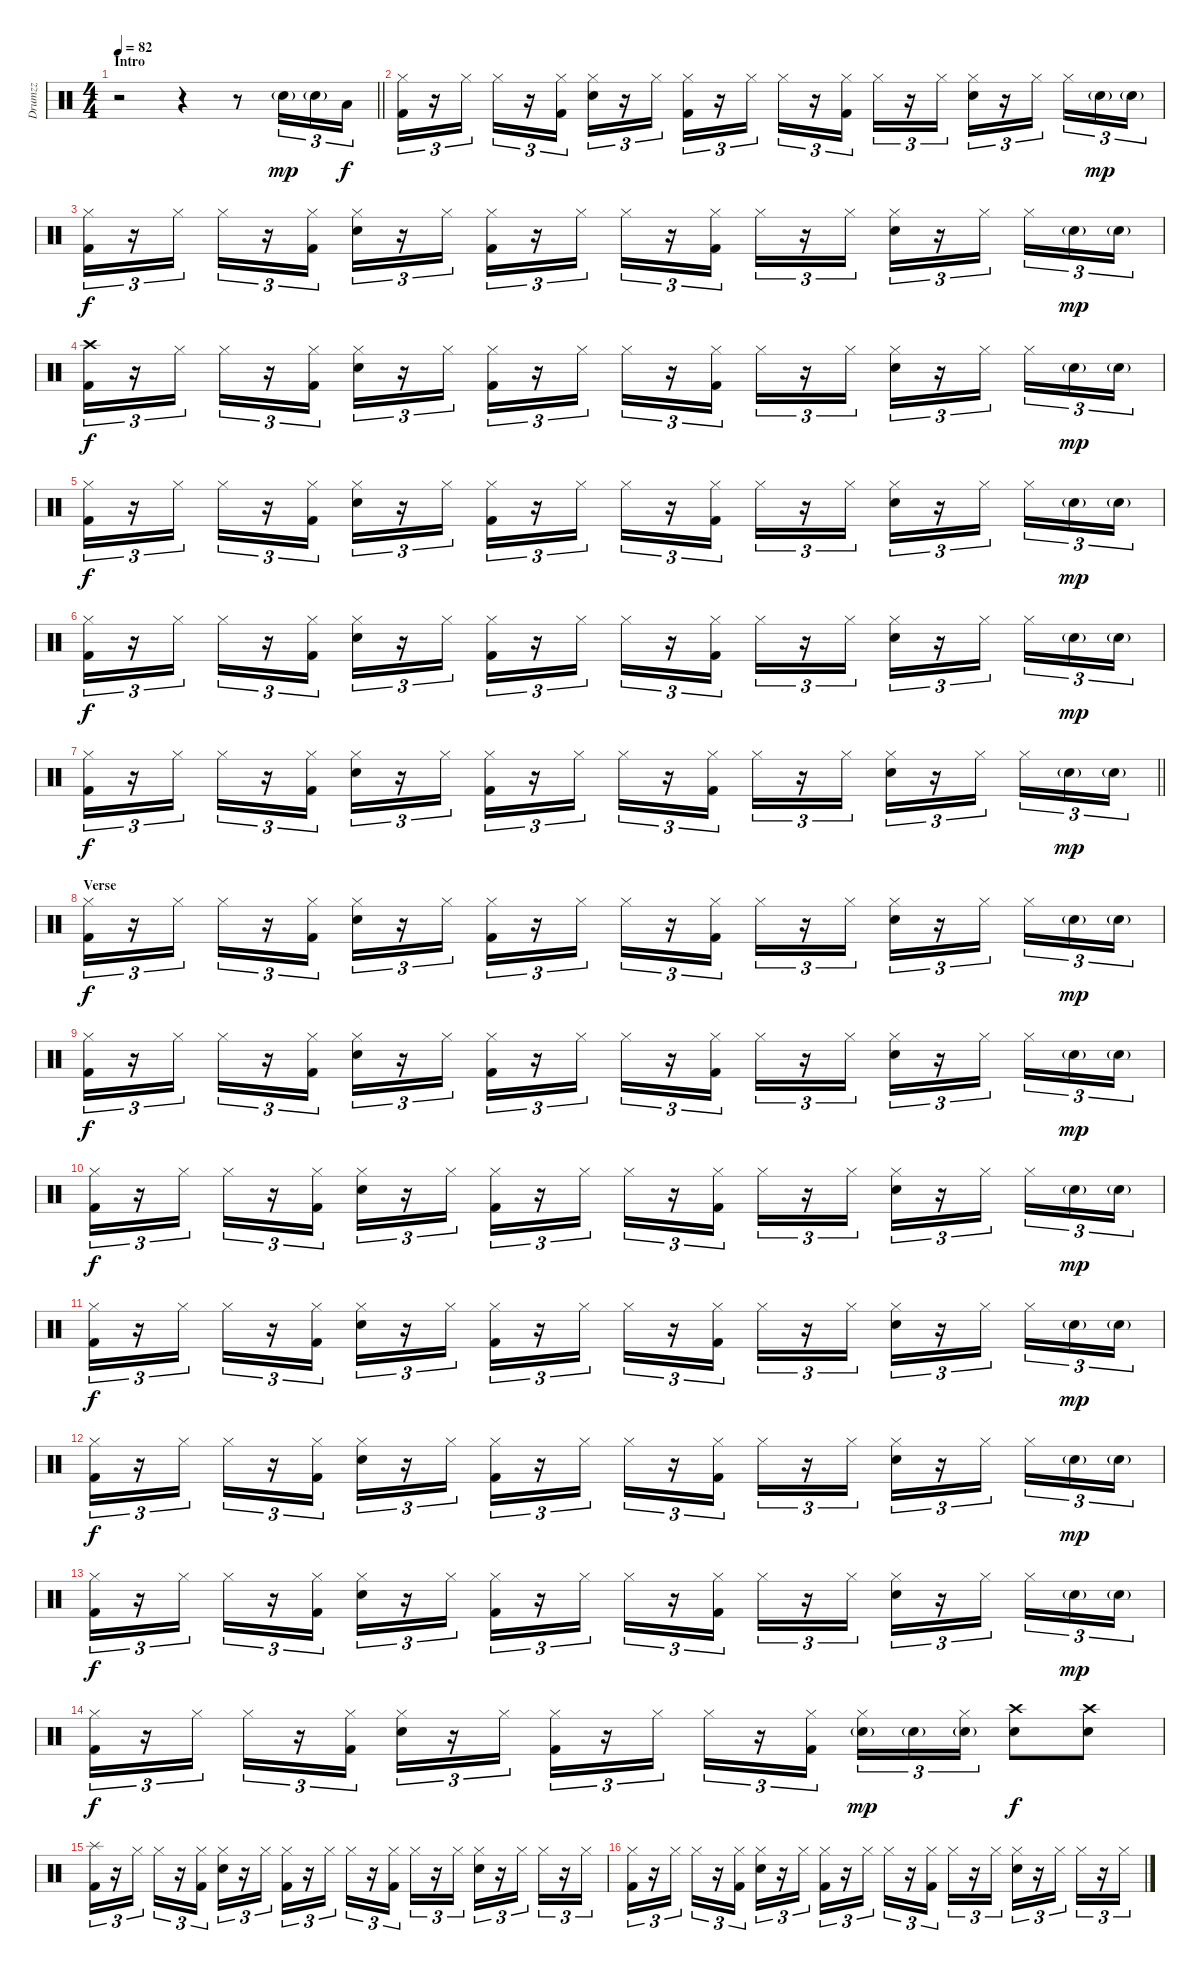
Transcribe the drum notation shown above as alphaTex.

\track ("Drumzz" "Drumzz") {instrument percussion}
\staff {score}
\articulation defaults
\ts (4 4)
\section ("" "Intro")
\tempo 82
\clef neutral
\barLineRight lightlight
\ks c
r.2{dy mp} r.4 r.8 "Snare (hit) 2"{g}.16{tu (3 2)} "Snare (hit) 2"{g}.16{tu (3 2)} "Low Tom (hit)".16{tu (3 2) dy f} |
("Hi-Hat (closed)" "Kick (hit) 2").16{tu (3 2)} r.16{tu (3 2)} "Hi-Hat (closed)".16{tu (3 2)} "Hi-Hat (closed)".16{tu (3 2)} r.16{tu (3 2)} ("Hi-Hat (closed)" "Kick (hit) 2").16{tu (3 2)} ("Hi-Hat (closed)" "Snare (hit) 2").16{tu (3 2)} r.16{tu (3 2)} "Hi-Hat (closed)".16{tu (3 2)} ("Hi-Hat (closed)" "Kick (hit) 2").16{tu (3 2)} r.16{tu (3 2)} "Hi-Hat (closed)".16{tu (3 2)} "Hi-Hat (closed)".16{tu (3 2)} r.16{tu (3 2)} ("Hi-Hat (closed)" "Kick (hit) 2").16{tu (3 2)} "Hi-Hat (closed)".16{tu (3 2)} r.16{tu (3 2)} "Hi-Hat (closed)".16{tu (3 2)} ("Hi-Hat (closed)" "Snare (hit) 2").16{tu (3 2)} r.16{tu (3 2)} "Hi-Hat (closed)".16{tu (3 2) beam splitsecondary} "Hi-Hat (closed)".16{tu (3 2)} "Snare (hit) 2"{g}.16{tu (3 2) dy mp} "Snare (hit) 2"{g}.16{tu (3 2)} |
("Hi-Hat (closed)" "Kick (hit) 2").16{tu (3 2) dy f} r.16{tu (3 2)} "Hi-Hat (closed)".16{tu (3 2)} "Hi-Hat (closed)".16{tu (3 2)} r.16{tu (3 2)} ("Hi-Hat (closed)" "Kick (hit) 2").16{tu (3 2)} ("Hi-Hat (closed)" "Snare (hit) 2").16{tu (3 2)} r.16{tu (3 2)} "Hi-Hat (closed)".16{tu (3 2)} ("Hi-Hat (closed)" "Kick (hit) 2").16{tu (3 2)} r.16{tu (3 2)} "Hi-Hat (closed)".16{tu (3 2)} "Hi-Hat (closed)".16{tu (3 2)} r.16{tu (3 2)} ("Hi-Hat (closed)" "Kick (hit) 2").16{tu (3 2)} "Hi-Hat (closed)".16{tu (3 2)} r.16{tu (3 2)} "Hi-Hat (closed)".16{tu (3 2)} ("Hi-Hat (closed)" "Snare (hit) 2").16{tu (3 2)} r.16{tu (3 2)} "Hi-Hat (closed)".16{tu (3 2) beam splitsecondary} "Hi-Hat (closed)".16{tu (3 2)} "Snare (hit) 2"{g}.16{tu (3 2) dy mp} "Snare (hit) 2"{g}.16{tu (3 2)} |
("Crash high (hit)" "Kick (hit) 2").16{tu (3 2) dy f} r.16{tu (3 2)} "Hi-Hat (closed)".16{tu (3 2)} "Hi-Hat (closed)".16{tu (3 2)} r.16{tu (3 2)} ("Hi-Hat (closed)" "Kick (hit) 2").16{tu (3 2)} ("Hi-Hat (closed)" "Snare (hit) 2").16{tu (3 2)} r.16{tu (3 2)} "Hi-Hat (closed)".16{tu (3 2)} ("Hi-Hat (closed)" "Kick (hit) 2").16{tu (3 2)} r.16{tu (3 2)} "Hi-Hat (closed)".16{tu (3 2)} "Hi-Hat (closed)".16{tu (3 2)} r.16{tu (3 2)} ("Hi-Hat (closed)" "Kick (hit) 2").16{tu (3 2)} "Hi-Hat (closed)".16{tu (3 2)} r.16{tu (3 2)} "Hi-Hat (closed)".16{tu (3 2)} ("Hi-Hat (closed)" "Snare (hit) 2").16{tu (3 2)} r.16{tu (3 2)} "Hi-Hat (closed)".16{tu (3 2) beam splitsecondary} "Hi-Hat (closed)".16{tu (3 2)} "Snare (hit) 2"{g}.16{tu (3 2) dy mp} "Snare (hit) 2"{g}.16{tu (3 2)} |
("Hi-Hat (closed)" "Kick (hit) 2").16{tu (3 2) dy f} r.16{tu (3 2)} "Hi-Hat (closed)".16{tu (3 2)} "Hi-Hat (closed)".16{tu (3 2)} r.16{tu (3 2)} ("Hi-Hat (closed)" "Kick (hit) 2").16{tu (3 2)} ("Hi-Hat (closed)" "Snare (hit) 2").16{tu (3 2)} r.16{tu (3 2)} "Hi-Hat (closed)".16{tu (3 2)} ("Hi-Hat (closed)" "Kick (hit) 2").16{tu (3 2)} r.16{tu (3 2)} "Hi-Hat (closed)".16{tu (3 2)} "Hi-Hat (closed)".16{tu (3 2)} r.16{tu (3 2)} ("Hi-Hat (closed)" "Kick (hit) 2").16{tu (3 2)} "Hi-Hat (closed)".16{tu (3 2)} r.16{tu (3 2)} "Hi-Hat (closed)".16{tu (3 2)} ("Hi-Hat (closed)" "Snare (hit) 2").16{tu (3 2)} r.16{tu (3 2)} "Hi-Hat (closed)".16{tu (3 2) beam splitsecondary} "Hi-Hat (closed)".16{tu (3 2)} "Snare (hit) 2"{g}.16{tu (3 2) dy mp} "Snare (hit) 2"{g}.16{tu (3 2)} |
("Hi-Hat (closed)" "Kick (hit) 2").16{tu (3 2) dy f} r.16{tu (3 2)} "Hi-Hat (closed)".16{tu (3 2)} "Hi-Hat (closed)".16{tu (3 2)} r.16{tu (3 2)} ("Hi-Hat (closed)" "Kick (hit) 2").16{tu (3 2)} ("Hi-Hat (closed)" "Snare (hit) 2").16{tu (3 2)} r.16{tu (3 2)} "Hi-Hat (closed)".16{tu (3 2)} ("Hi-Hat (closed)" "Kick (hit) 2").16{tu (3 2)} r.16{tu (3 2)} "Hi-Hat (closed)".16{tu (3 2)} "Hi-Hat (closed)".16{tu (3 2)} r.16{tu (3 2)} ("Hi-Hat (closed)" "Kick (hit) 2").16{tu (3 2)} "Hi-Hat (closed)".16{tu (3 2)} r.16{tu (3 2)} "Hi-Hat (closed)".16{tu (3 2)} ("Hi-Hat (closed)" "Snare (hit) 2").16{tu (3 2)} r.16{tu (3 2)} "Hi-Hat (closed)".16{tu (3 2) beam splitsecondary} "Hi-Hat (closed)".16{tu (3 2)} "Snare (hit) 2"{g}.16{tu (3 2) dy mp} "Snare (hit) 2"{g}.16{tu (3 2)} |
\barLineRight lightlight
("Hi-Hat (closed)" "Kick (hit) 2").16{tu (3 2) dy f} r.16{tu (3 2)} "Hi-Hat (closed)".16{tu (3 2)} "Hi-Hat (closed)".16{tu (3 2)} r.16{tu (3 2)} ("Hi-Hat (closed)" "Kick (hit) 2").16{tu (3 2)} ("Hi-Hat (closed)" "Snare (hit) 2").16{tu (3 2)} r.16{tu (3 2)} "Hi-Hat (closed)".16{tu (3 2)} ("Hi-Hat (closed)" "Kick (hit) 2").16{tu (3 2)} r.16{tu (3 2)} "Hi-Hat (closed)".16{tu (3 2)} "Hi-Hat (closed)".16{tu (3 2)} r.16{tu (3 2)} ("Hi-Hat (closed)" "Kick (hit) 2").16{tu (3 2)} "Hi-Hat (closed)".16{tu (3 2)} r.16{tu (3 2)} "Hi-Hat (closed)".16{tu (3 2)} ("Hi-Hat (closed)" "Snare (hit) 2").16{tu (3 2)} r.16{tu (3 2)} "Hi-Hat (closed)".16{tu (3 2) beam splitsecondary} "Hi-Hat (closed)".16{tu (3 2)} "Snare (hit) 2"{g}.16{tu (3 2) dy mp} "Snare (hit) 2"{g}.16{tu (3 2)} |
\section ("" "Verse")
("Hi-Hat (closed)" "Kick (hit) 2").16{tu (3 2) dy f} r.16{tu (3 2)} "Hi-Hat (closed)".16{tu (3 2)} "Hi-Hat (closed)".16{tu (3 2)} r.16{tu (3 2)} ("Hi-Hat (closed)" "Kick (hit) 2").16{tu (3 2)} ("Hi-Hat (closed)" "Snare (hit) 2").16{tu (3 2)} r.16{tu (3 2)} "Hi-Hat (closed)".16{tu (3 2)} ("Hi-Hat (closed)" "Kick (hit) 2").16{tu (3 2)} r.16{tu (3 2)} "Hi-Hat (closed)".16{tu (3 2)} "Hi-Hat (closed)".16{tu (3 2)} r.16{tu (3 2)} ("Hi-Hat (closed)" "Kick (hit) 2").16{tu (3 2)} "Hi-Hat (closed)".16{tu (3 2)} r.16{tu (3 2)} "Hi-Hat (closed)".16{tu (3 2)} ("Hi-Hat (closed)" "Snare (hit) 2").16{tu (3 2)} r.16{tu (3 2)} "Hi-Hat (closed)".16{tu (3 2) beam splitsecondary} "Hi-Hat (closed)".16{tu (3 2)} "Snare (hit) 2"{g}.16{tu (3 2) dy mp} "Snare (hit) 2"{g}.16{tu (3 2)} |
("Hi-Hat (closed)" "Kick (hit) 2").16{tu (3 2) dy f} r.16{tu (3 2)} "Hi-Hat (closed)".16{tu (3 2)} "Hi-Hat (closed)".16{tu (3 2)} r.16{tu (3 2)} ("Hi-Hat (closed)" "Kick (hit) 2").16{tu (3 2)} ("Hi-Hat (closed)" "Snare (hit) 2").16{tu (3 2)} r.16{tu (3 2)} "Hi-Hat (closed)".16{tu (3 2)} ("Hi-Hat (closed)" "Kick (hit) 2").16{tu (3 2)} r.16{tu (3 2)} "Hi-Hat (closed)".16{tu (3 2)} "Hi-Hat (closed)".16{tu (3 2)} r.16{tu (3 2)} ("Hi-Hat (closed)" "Kick (hit) 2").16{tu (3 2)} "Hi-Hat (closed)".16{tu (3 2)} r.16{tu (3 2)} "Hi-Hat (closed)".16{tu (3 2)} ("Hi-Hat (closed)" "Snare (hit) 2").16{tu (3 2)} r.16{tu (3 2)} "Hi-Hat (closed)".16{tu (3 2) beam splitsecondary} "Hi-Hat (closed)".16{tu (3 2)} "Snare (hit) 2"{g}.16{tu (3 2) dy mp} "Snare (hit) 2"{g}.16{tu (3 2)} |
("Hi-Hat (closed)" "Kick (hit) 2").16{tu (3 2) dy f} r.16{tu (3 2)} "Hi-Hat (closed)".16{tu (3 2)} "Hi-Hat (closed)".16{tu (3 2)} r.16{tu (3 2)} ("Hi-Hat (closed)" "Kick (hit) 2").16{tu (3 2)} ("Hi-Hat (closed)" "Snare (hit) 2").16{tu (3 2)} r.16{tu (3 2)} "Hi-Hat (closed)".16{tu (3 2)} ("Hi-Hat (closed)" "Kick (hit) 2").16{tu (3 2)} r.16{tu (3 2)} "Hi-Hat (closed)".16{tu (3 2)} "Hi-Hat (closed)".16{tu (3 2)} r.16{tu (3 2)} ("Hi-Hat (closed)" "Kick (hit) 2").16{tu (3 2)} "Hi-Hat (closed)".16{tu (3 2)} r.16{tu (3 2)} "Hi-Hat (closed)".16{tu (3 2)} ("Hi-Hat (closed)" "Snare (hit) 2").16{tu (3 2)} r.16{tu (3 2)} "Hi-Hat (closed)".16{tu (3 2) beam splitsecondary} "Hi-Hat (closed)".16{tu (3 2)} "Snare (hit) 2"{g}.16{tu (3 2) dy mp} "Snare (hit) 2"{g}.16{tu (3 2)} |
("Hi-Hat (closed)" "Kick (hit) 2").16{tu (3 2) dy f} r.16{tu (3 2)} "Hi-Hat (closed)".16{tu (3 2)} "Hi-Hat (closed)".16{tu (3 2)} r.16{tu (3 2)} ("Hi-Hat (closed)" "Kick (hit) 2").16{tu (3 2)} ("Hi-Hat (closed)" "Snare (hit) 2").16{tu (3 2)} r.16{tu (3 2)} "Hi-Hat (closed)".16{tu (3 2)} ("Hi-Hat (closed)" "Kick (hit) 2").16{tu (3 2)} r.16{tu (3 2)} "Hi-Hat (closed)".16{tu (3 2)} "Hi-Hat (closed)".16{tu (3 2)} r.16{tu (3 2)} ("Hi-Hat (closed)" "Kick (hit) 2").16{tu (3 2)} "Hi-Hat (closed)".16{tu (3 2)} r.16{tu (3 2)} "Hi-Hat (closed)".16{tu (3 2)} ("Hi-Hat (closed)" "Snare (hit) 2").16{tu (3 2)} r.16{tu (3 2)} "Hi-Hat (closed)".16{tu (3 2) beam splitsecondary} "Hi-Hat (closed)".16{tu (3 2)} "Snare (hit) 2"{g}.16{tu (3 2) dy mp} "Snare (hit) 2"{g}.16{tu (3 2)} |
("Hi-Hat (closed)" "Kick (hit) 2").16{tu (3 2) dy f} r.16{tu (3 2)} "Hi-Hat (closed)".16{tu (3 2)} "Hi-Hat (closed)".16{tu (3 2)} r.16{tu (3 2)} ("Hi-Hat (closed)" "Kick (hit) 2").16{tu (3 2)} ("Hi-Hat (closed)" "Snare (hit) 2").16{tu (3 2)} r.16{tu (3 2)} "Hi-Hat (closed)".16{tu (3 2)} ("Hi-Hat (closed)" "Kick (hit) 2").16{tu (3 2)} r.16{tu (3 2)} "Hi-Hat (closed)".16{tu (3 2)} "Hi-Hat (closed)".16{tu (3 2)} r.16{tu (3 2)} ("Hi-Hat (closed)" "Kick (hit) 2").16{tu (3 2)} "Hi-Hat (closed)".16{tu (3 2)} r.16{tu (3 2)} "Hi-Hat (closed)".16{tu (3 2)} ("Hi-Hat (closed)" "Snare (hit) 2").16{tu (3 2)} r.16{tu (3 2)} "Hi-Hat (closed)".16{tu (3 2) beam splitsecondary} "Hi-Hat (closed)".16{tu (3 2)} "Snare (hit) 2"{g}.16{tu (3 2) dy mp} "Snare (hit) 2"{g}.16{tu (3 2)} |
("Hi-Hat (closed)" "Kick (hit) 2").16{tu (3 2) dy f} r.16{tu (3 2)} "Hi-Hat (closed)".16{tu (3 2)} "Hi-Hat (closed)".16{tu (3 2)} r.16{tu (3 2)} ("Hi-Hat (closed)" "Kick (hit) 2").16{tu (3 2)} ("Hi-Hat (closed)" "Snare (hit) 2").16{tu (3 2)} r.16{tu (3 2)} "Hi-Hat (closed)".16{tu (3 2)} ("Hi-Hat (closed)" "Kick (hit) 2").16{tu (3 2)} r.16{tu (3 2)} "Hi-Hat (closed)".16{tu (3 2)} "Hi-Hat (closed)".16{tu (3 2)} r.16{tu (3 2)} ("Hi-Hat (closed)" "Kick (hit) 2").16{tu (3 2)} "Hi-Hat (closed)".16{tu (3 2)} r.16{tu (3 2)} "Hi-Hat (closed)".16{tu (3 2)} ("Hi-Hat (closed)" "Snare (hit) 2").16{tu (3 2)} r.16{tu (3 2)} "Hi-Hat (closed)".16{tu (3 2) beam splitsecondary} "Hi-Hat (closed)".16{tu (3 2)} "Snare (hit) 2"{g}.16{tu (3 2) dy mp} "Snare (hit) 2"{g}.16{tu (3 2)} |
("Hi-Hat (closed)" "Kick (hit) 2").16{tu (3 2) dy f} r.16{tu (3 2)} "Hi-Hat (closed)".16{tu (3 2)} "Hi-Hat (closed)".16{tu (3 2)} r.16{tu (3 2)} ("Hi-Hat (closed)" "Kick (hit) 2").16{tu (3 2)} ("Hi-Hat (closed)" "Snare (hit) 2").16{tu (3 2)} r.16{tu (3 2)} "Hi-Hat (closed)".16{tu (3 2)} ("Hi-Hat (closed)" "Kick (hit) 2").16{tu (3 2)} r.16{tu (3 2)} "Hi-Hat (closed)".16{tu (3 2)} "Hi-Hat (closed)".16{tu (3 2)} r.16{tu (3 2)} ("Hi-Hat (closed)" "Kick (hit) 2").16{tu (3 2) beam splitsecondary} ("Hi-Hat (closed)" "Snare (hit) 2"{g}).16{tu (3 2) dy mp} "Snare (hit) 2"{g}.16{tu (3 2)} ("Hi-Hat (closed)" "Snare (hit) 2"{g}).16{tu (3 2)} ("Crash high (hit)" "Snare (hit) 2").8{dy f} ("Crash high (hit)" "Snare (hit) 2").8 |
("Splash (hit)" "Kick (hit) 2").16{tu (3 2)} r.16{tu (3 2)} "Hi-Hat (closed)".16{tu (3 2)} "Hi-Hat (closed)".16{tu (3 2)} r.16{tu (3 2)} ("Hi-Hat (closed)" "Kick (hit) 2").16{tu (3 2)} ("Hi-Hat (closed)" "Snare (hit) 2").16{tu (3 2)} r.16{tu (3 2)} "Hi-Hat (closed)".16{tu (3 2)} ("Hi-Hat (closed)" "Kick (hit) 2").16{tu (3 2)} r.16{tu (3 2)} "Hi-Hat (closed)".16{tu (3 2)} "Hi-Hat (closed)".16{tu (3 2)} r.16{tu (3 2)} ("Hi-Hat (closed)" "Kick (hit) 2").16{tu (3 2)} "Hi-Hat (closed)".16{tu (3 2)} r.16{tu (3 2)} "Hi-Hat (closed)".16{tu (3 2)} ("Hi-Hat (closed)" "Snare (hit) 2").16{tu (3 2)} r.16{tu (3 2)} "Hi-Hat (closed)".16{tu (3 2)} "Hi-Hat (closed)".16{tu (3 2)} r.16{tu (3 2)} "Hi-Hat (closed)".16{tu (3 2)} |
("Hi-Hat (closed)" "Kick (hit) 2").16{tu (3 2)} r.16{tu (3 2)} "Hi-Hat (closed)".16{tu (3 2)} "Hi-Hat (closed)".16{tu (3 2)} r.16{tu (3 2)} ("Hi-Hat (closed)" "Kick (hit) 2").16{tu (3 2)} ("Hi-Hat (closed)" "Snare (hit) 2").16{tu (3 2)} r.16{tu (3 2)} "Hi-Hat (closed)".16{tu (3 2)} ("Hi-Hat (closed)" "Kick (hit) 2").16{tu (3 2)} r.16{tu (3 2)} "Hi-Hat (closed)".16{tu (3 2)} "Hi-Hat (closed)".16{tu (3 2)} r.16{tu (3 2)} ("Hi-Hat (closed)" "Kick (hit) 2").16{tu (3 2)} "Hi-Hat (closed)".16{tu (3 2)} r.16{tu (3 2)} "Hi-Hat (closed)".16{tu (3 2)} ("Hi-Hat (closed)" "Snare (hit) 2").16{tu (3 2)} r.16{tu (3 2)} "Hi-Hat (closed)".16{tu (3 2)} "Hi-Hat (closed)".16{tu (3 2)} r.16{tu (3 2)} "Hi-Hat (closed)".16{tu (3 2)}
